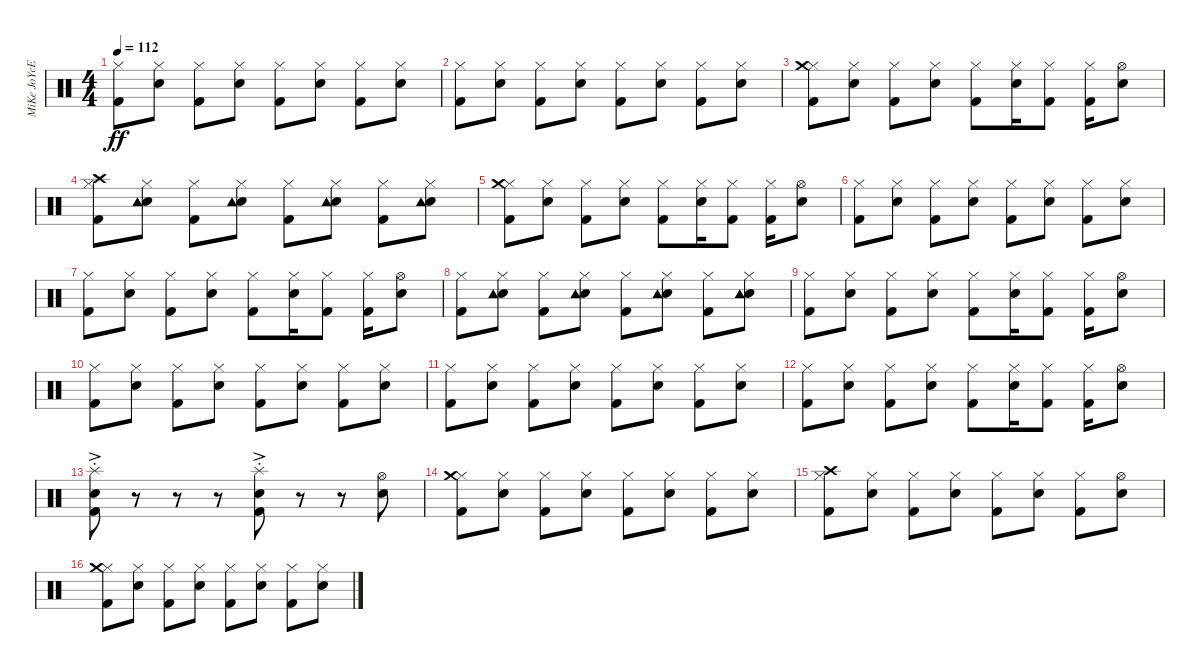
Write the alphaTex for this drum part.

\track ("MiKe JoYcE" "MiKe JoYcE") {instrument percussion}
\staff {score}
\articulation defaults
\ts (4 4)
\tempo 112
\clef neutral
\ks c
("Hi-Hat (closed)" "Kick (hit) 2").8{dy ff} ("Hi-Hat (closed)" "Electric Snare (hit)").8 ("Hi-Hat (closed)" "Kick (hit) 2").8 ("Hi-Hat (closed)" "Electric Snare (hit)").8 ("Hi-Hat (closed)" "Kick (hit) 2").8 ("Hi-Hat (closed)" "Electric Snare (hit)").8 ("Hi-Hat (closed)" "Kick (hit) 2").8 ("Hi-Hat (closed)" "Electric Snare (hit)").8 |
("Hi-Hat (closed)" "Kick (hit) 2").8 ("Hi-Hat (closed)" "Electric Snare (hit)").8 ("Hi-Hat (closed)" "Kick (hit) 2").8 ("Hi-Hat (closed)" "Electric Snare (hit)").8 ("Hi-Hat (closed)" "Kick (hit) 2").8 ("Hi-Hat (closed)" "Electric Snare (hit)").8 ("Hi-Hat (closed)" "Kick (hit) 2").8 ("Hi-Hat (closed)" "Electric Snare (hit)").8 |
("Hi-Hat (closed)" "Crash medium (hit)" "Kick (hit) 2").8 ("Hi-Hat (closed)" "Electric Snare (hit)").8 ("Hi-Hat (closed)" "Kick (hit) 2").8 ("Hi-Hat (closed)" "Electric Snare (hit)").8 ("Hi-Hat (closed)" "Kick (hit) 2").8 ("Hi-Hat (closed)" "Electric Snare (hit)").16 ("Hi-Hat (closed)" "Kick (hit) 2").8 ("Hi-Hat (closed)" "Kick (hit) 2").16 ("Hi-Hat (open)" "Electric Snare (hit)").8 |
("Hi-Hat (closed)" "Crash high (hit)" "Kick (hit) 2").8 ("Hi-Hat (closed)" "Electric Snare (hit)" "Tambourine (hit)").8 ("Hi-Hat (closed)" "Kick (hit) 2").8 ("Hi-Hat (closed)" "Electric Snare (hit)" "Tambourine (hit)").8 ("Hi-Hat (closed)" "Kick (hit) 2").8 ("Hi-Hat (closed)" "Electric Snare (hit)" "Tambourine (hit)").8 ("Hi-Hat (closed)" "Kick (hit) 2").8 ("Hi-Hat (closed)" "Electric Snare (hit)" "Tambourine (hit)").8 |
("Hi-Hat (closed)" "Crash medium (hit)" "Kick (hit) 2").8 ("Hi-Hat (closed)" "Electric Snare (hit)").8 ("Hi-Hat (closed)" "Kick (hit) 2").8 ("Hi-Hat (closed)" "Electric Snare (hit)").8 ("Hi-Hat (closed)" "Kick (hit) 2").8 ("Hi-Hat (closed)" "Electric Snare (hit)").16 ("Hi-Hat (closed)" "Kick (hit) 2").8 ("Hi-Hat (closed)" "Kick (hit) 2").16 ("Hi-Hat (open)" "Electric Snare (hit)").8 |
("Hi-Hat (closed)" "Kick (hit) 2").8 ("Hi-Hat (closed)" "Electric Snare (hit)").8 ("Hi-Hat (closed)" "Kick (hit) 2").8 ("Hi-Hat (closed)" "Electric Snare (hit)").8 ("Hi-Hat (closed)" "Kick (hit) 2").8 ("Hi-Hat (closed)" "Electric Snare (hit)").8 ("Hi-Hat (closed)" "Kick (hit) 2").8 ("Hi-Hat (closed)" "Electric Snare (hit)").8 |
("Hi-Hat (closed)" "Kick (hit) 2").8 ("Hi-Hat (closed)" "Electric Snare (hit)").8 ("Hi-Hat (closed)" "Kick (hit) 2").8 ("Hi-Hat (closed)" "Electric Snare (hit)").8 ("Hi-Hat (closed)" "Kick (hit) 2").8 ("Hi-Hat (closed)" "Electric Snare (hit)").16 ("Hi-Hat (closed)" "Kick (hit) 2").8 ("Hi-Hat (closed)" "Kick (hit) 2").16 ("Hi-Hat (open)" "Electric Snare (hit)").8 |
("Hi-Hat (closed)" "Kick (hit) 2").8 ("Hi-Hat (closed)" "Electric Snare (hit)" "Tambourine (hit)").8 ("Hi-Hat (closed)" "Kick (hit) 2").8 ("Hi-Hat (closed)" "Electric Snare (hit)" "Tambourine (hit)").8 ("Hi-Hat (closed)" "Kick (hit) 2").8 ("Hi-Hat (closed)" "Electric Snare (hit)" "Tambourine (hit)").8 ("Hi-Hat (closed)" "Kick (hit) 2").8 ("Hi-Hat (closed)" "Electric Snare (hit)" "Tambourine (hit)").8 |
("Hi-Hat (closed)" "Kick (hit) 2").8 ("Hi-Hat (closed)" "Electric Snare (hit)").8 ("Hi-Hat (closed)" "Kick (hit) 2").8 ("Hi-Hat (closed)" "Electric Snare (hit)").8 ("Hi-Hat (closed)" "Kick (hit) 2").8 ("Hi-Hat (closed)" "Electric Snare (hit)").16 ("Hi-Hat (closed)" "Kick (hit) 2").8 ("Hi-Hat (closed)" "Kick (hit) 2").16 ("Hi-Hat (open)" "Electric Snare (hit)").8 |
("Hi-Hat (closed)" "Kick (hit) 2").8 ("Hi-Hat (closed)" "Electric Snare (hit)").8 ("Hi-Hat (closed)" "Kick (hit) 2").8 ("Hi-Hat (closed)" "Electric Snare (hit)").8 ("Hi-Hat (closed)" "Kick (hit) 2").8 ("Hi-Hat (closed)" "Electric Snare (hit)").8 ("Hi-Hat (closed)" "Kick (hit) 2").8 ("Hi-Hat (closed)" "Electric Snare (hit)").8 |
("Hi-Hat (closed)" "Kick (hit) 2").8 ("Hi-Hat (closed)" "Electric Snare (hit)").8 ("Hi-Hat (closed)" "Kick (hit) 2").8 ("Hi-Hat (closed)" "Electric Snare (hit)").8 ("Hi-Hat (closed)" "Kick (hit) 2").8 ("Hi-Hat (closed)" "Electric Snare (hit)").8 ("Hi-Hat (closed)" "Kick (hit) 2").8 ("Hi-Hat (closed)" "Electric Snare (hit)").8 |
("Hi-Hat (closed)" "Kick (hit) 2").8 ("Hi-Hat (closed)" "Electric Snare (hit)").8 ("Hi-Hat (closed)" "Kick (hit) 2").8 ("Hi-Hat (closed)" "Electric Snare (hit)").8 ("Hi-Hat (closed)" "Kick (hit) 2").8 ("Hi-Hat (closed)" "Electric Snare (hit)").16 ("Hi-Hat (closed)" "Kick (hit) 2").8 ("Hi-Hat (closed)" "Kick (hit) 2").16 ("Hi-Hat (open)" "Electric Snare (hit)").8 |
("Splash (hit)"{ac st} "Electric Snare (hit)" "Kick (hit) 2").8 r.8 r.8 r.8 ("Splash (hit)"{ac st} "Electric Snare (hit)" "Kick (hit) 2").8 r.8 r.8 ("Hi-Hat (open)" "Electric Snare (hit)").8 |
("Hi-Hat (closed)" "Crash medium (hit)" "Kick (hit) 2").8 ("Hi-Hat (closed)" "Electric Snare (hit)").8 ("Hi-Hat (closed)" "Kick (hit) 2").8 ("Hi-Hat (closed)" "Electric Snare (hit)").8 ("Hi-Hat (closed)" "Kick (hit) 2").8 ("Hi-Hat (closed)" "Electric Snare (hit)").8 ("Hi-Hat (closed)" "Kick (hit) 2").8 ("Hi-Hat (closed)" "Electric Snare (hit)").8 |
("Hi-Hat (closed)" "Crash high (hit)" "Kick (hit) 2").8 ("Hi-Hat (closed)" "Electric Snare (hit)").8 ("Hi-Hat (closed)" "Kick (hit) 2").8 ("Hi-Hat (closed)" "Electric Snare (hit)").8 ("Hi-Hat (closed)" "Kick (hit) 2").8 ("Hi-Hat (closed)" "Electric Snare (hit)").8 ("Hi-Hat (closed)" "Kick (hit) 2").8 ("Hi-Hat (open)" "Electric Snare (hit)").8 |
("Hi-Hat (closed)" "Crash medium (hit)" "Kick (hit) 2").8 ("Hi-Hat (closed)" "Electric Snare (hit)").8 ("Hi-Hat (closed)" "Kick (hit) 2").8 ("Hi-Hat (closed)" "Electric Snare (hit)").8 ("Hi-Hat (closed)" "Kick (hit) 2").8 ("Hi-Hat (closed)" "Electric Snare (hit)").8 ("Hi-Hat (closed)" "Kick (hit) 2").8 ("Hi-Hat (closed)" "Electric Snare (hit)").8
